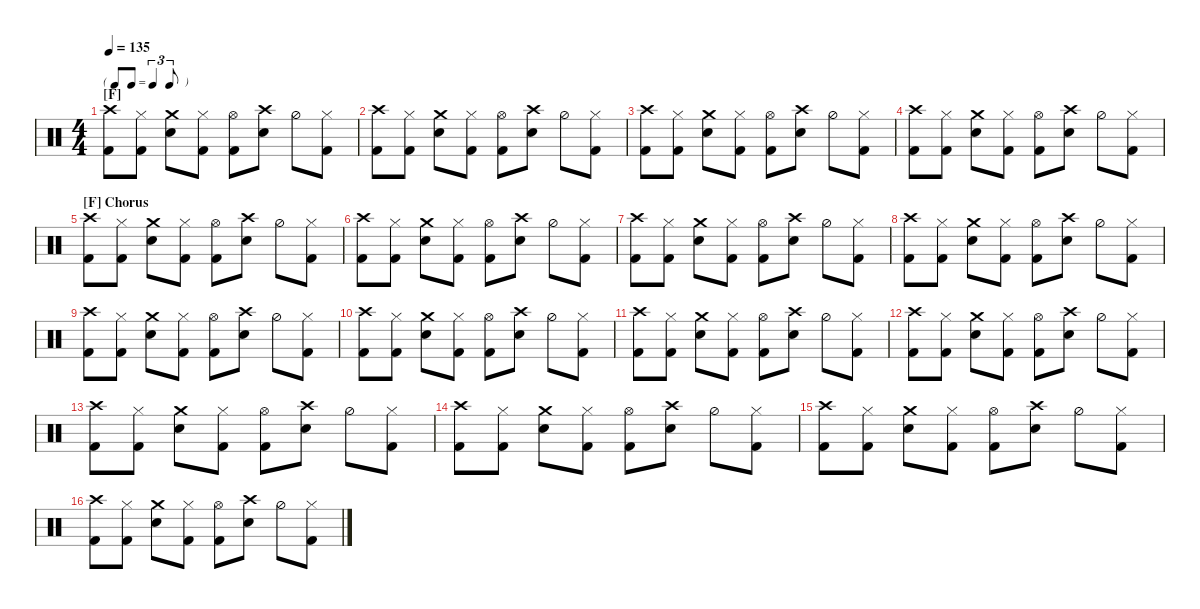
\defaultSystemsLayout 4
\hideDynamics
\bracketExtendMode nobrackets
\singleTrackTrackNamePolicy hidden
\multiTrackTrackNamePolicy hidden
\firstSystemTrackNameMode fullname
\firstSystemTrackNameOrientation horizontal
\otherSystemsTrackNameOrientation horizontal
\track ("Drum" "Drums") {instrument percussion}
\staff {score}
\articulation defaults
\ts (4 4)
\tf triplet8th
\section ("F" "")
\scale
0.25
\tempo 135
\accidentals auto
\clef neutral
\ottava regular
\simile none
\scale
0.25
\ks c
("Kick (hit) 2" "Crash high (hit)").8{dy f beam Down} ("Kick (hit) 2" "Hi-Hat (closed)").8{beam Down} ("Snare (hit) 2" "Crash medium (hit)").8{beam Down} ("Kick (hit) 2" "Hi-Hat (closed)").8{beam Down} ("Kick (hit) 2" "Hi-Hat (open)").8{beam Down} ("Snare (hit) 2" "Crash high (hit)").8{beam Down} "Hi-Hat (half)".8{beam Down} ("Kick (hit) 2" "Hi-Hat (closed)").8{beam Down} |
\scale
0.25
\scale
0.25 ("Kick (hit) 2" "Crash high (hit)").8{beam Down} ("Kick (hit) 2" "Hi-Hat (closed)").8{beam Down} ("Snare (hit) 2" "Crash medium (hit)").8{beam Down} ("Kick (hit) 2" "Hi-Hat (closed)").8{beam Down} ("Kick (hit) 2" "Hi-Hat (open)").8{beam Down} ("Snare (hit) 2" "Crash high (hit)").8{beam Down} "Hi-Hat (half)".8{beam Down} ("Kick (hit) 2" "Hi-Hat (closed)").8{beam Down} |
\scale
0.25
\scale
0.25 ("Kick (hit) 2" "Crash high (hit)").8{beam Down} ("Kick (hit) 2" "Hi-Hat (closed)").8{beam Down} ("Snare (hit) 2" "Crash medium (hit)").8{beam Down} ("Kick (hit) 2" "Hi-Hat (closed)").8{beam Down} ("Kick (hit) 2" "Hi-Hat (open)").8{beam Down} ("Snare (hit) 2" "Crash high (hit)").8{beam Down} "Hi-Hat (half)".8{beam Down} ("Kick (hit) 2" "Hi-Hat (closed)").8{beam Down} |
\scale
0.25
\scale
0.25 ("Kick (hit) 2" "Crash high (hit)").8{beam Down} ("Kick (hit) 2" "Hi-Hat (closed)").8{beam Down} ("Snare (hit) 2" "Crash medium (hit)").8{beam Down} ("Kick (hit) 2" "Hi-Hat (closed)").8{beam Down} ("Kick (hit) 2" "Hi-Hat (open)").8{beam Down} ("Snare (hit) 2" "Crash high (hit)").8{beam Down} "Hi-Hat (half)".8{beam Down} ("Kick (hit) 2" "Hi-Hat (closed)").8{beam Down} |
\section ("F" "Chorus")
\scale
0.238636
\scale
0.25 ("Kick (hit) 2" "Crash high (hit)").8{beam Down} ("Kick (hit) 2" "Hi-Hat (closed)").8{beam Down} ("Snare (hit) 2" "Crash medium (hit)").8{beam Down} ("Kick (hit) 2" "Hi-Hat (closed)").8{beam Down} ("Kick (hit) 2" "Hi-Hat (open)").8{beam Down} ("Snare (hit) 2" "Crash high (hit)").8{beam Down} "Hi-Hat (half)".8{beam Down} ("Kick (hit) 2" "Hi-Hat (closed)").8{beam Down} |
\scale
0.284091
\scale
0.25 ("Kick (hit) 2" "Crash high (hit)").8{beam Down} ("Kick (hit) 2" "Hi-Hat (closed)").8{beam Down} ("Snare (hit) 2" "Crash medium (hit)").8{beam Down} ("Kick (hit) 2" "Hi-Hat (closed)").8{beam Down} ("Kick (hit) 2" "Hi-Hat (open)").8{beam Down} ("Snare (hit) 2" "Crash high (hit)").8{beam Down} "Hi-Hat (half)".8{beam Down} ("Kick (hit) 2" "Hi-Hat (closed)").8{beam Down} |
\scale
0.238636
\scale
0.25 ("Kick (hit) 2" "Crash high (hit)").8{beam Down} ("Kick (hit) 2" "Hi-Hat (closed)").8{beam Down} ("Snare (hit) 2" "Crash medium (hit)").8{beam Down} ("Kick (hit) 2" "Hi-Hat (closed)").8{beam Down} ("Kick (hit) 2" "Hi-Hat (open)").8{beam Down} ("Snare (hit) 2" "Crash high (hit)").8{beam Down} "Hi-Hat (half)".8{beam Down} ("Kick (hit) 2" "Hi-Hat (closed)").8{beam Down} |
\scale
0.238636
\scale
0.25 ("Kick (hit) 2" "Crash high (hit)").8{beam Down} ("Kick (hit) 2" "Hi-Hat (closed)").8{beam Down} ("Snare (hit) 2" "Crash medium (hit)").8{beam Down} ("Kick (hit) 2" "Hi-Hat (closed)").8{beam Down} ("Kick (hit) 2" "Hi-Hat (open)").8{beam Down} ("Snare (hit) 2" "Crash high (hit)").8{beam Down} "Hi-Hat (half)".8{beam Down} ("Kick (hit) 2" "Hi-Hat (closed)").8{beam Down} |
\scale
0.238636
\scale
0.25 ("Kick (hit) 2" "Crash high (hit)").8{beam Down} ("Kick (hit) 2" "Hi-Hat (closed)").8{beam Down} ("Snare (hit) 2" "Crash medium (hit)").8{beam Down} ("Kick (hit) 2" "Hi-Hat (closed)").8{beam Down} ("Kick (hit) 2" "Hi-Hat (open)").8{beam Down} ("Snare (hit) 2" "Crash high (hit)").8{beam Down} "Hi-Hat (half)".8{beam Down} ("Kick (hit) 2" "Hi-Hat (closed)").8{beam Down} |
\scale
0.284091
\scale
0.25 ("Kick (hit) 2" "Crash high (hit)").8{beam Down} ("Kick (hit) 2" "Hi-Hat (closed)").8{beam Down} ("Snare (hit) 2" "Crash medium (hit)").8{beam Down} ("Kick (hit) 2" "Hi-Hat (closed)").8{beam Down} ("Kick (hit) 2" "Hi-Hat (open)").8{beam Down} ("Snare (hit) 2" "Crash high (hit)").8{beam Down} "Hi-Hat (half)".8{beam Down} ("Kick (hit) 2" "Hi-Hat (closed)").8{beam Down} |
\scale
0.238636
\scale
0.25 ("Kick (hit) 2" "Crash high (hit)").8{beam Down} ("Kick (hit) 2" "Hi-Hat (closed)").8{beam Down} ("Snare (hit) 2" "Crash medium (hit)").8{beam Down} ("Kick (hit) 2" "Hi-Hat (closed)").8{beam Down} ("Kick (hit) 2" "Hi-Hat (open)").8{beam Down} ("Snare (hit) 2" "Crash high (hit)").8{beam Down} "Hi-Hat (half)".8{beam Down} ("Kick (hit) 2" "Hi-Hat (closed)").8{beam Down} |
\scale
0.238636
\scale
0.25 ("Kick (hit) 2" "Crash high (hit)").8{beam Down} ("Kick (hit) 2" "Hi-Hat (closed)").8{beam Down} ("Snare (hit) 2" "Crash medium (hit)").8{beam Down} ("Kick (hit) 2" "Hi-Hat (closed)").8{beam Down} ("Kick (hit) 2" "Hi-Hat (open)").8{beam Down} ("Snare (hit) 2" "Crash high (hit)").8{beam Down} "Hi-Hat (half)".8{beam Down} ("Kick (hit) 2" "Hi-Hat (closed)").8{beam Down} |
\scale
0.21875
\scale
0.25 ("Kick (hit) 2" "Crash high (hit)").8{beam Down} ("Kick (hit) 2" "Hi-Hat (closed)").8{beam Down} ("Snare (hit) 2" "Crash medium (hit)").8{beam Down} ("Kick (hit) 2" "Hi-Hat (closed)").8{beam Down} ("Kick (hit) 2" "Hi-Hat (open)").8{beam Down} ("Snare (hit) 2" "Crash high (hit)").8{beam Down} "Hi-Hat (half)".8{beam Down} ("Kick (hit) 2" "Hi-Hat (closed)").8{beam Down} |
\scale
0.34375
\scale
0.25 ("Kick (hit) 2" "Crash high (hit)").8{beam Down} ("Kick (hit) 2" "Hi-Hat (closed)").8{beam Down} ("Snare (hit) 2" "Crash medium (hit)").8{beam Down} ("Kick (hit) 2" "Hi-Hat (closed)").8{beam Down} ("Kick (hit) 2" "Hi-Hat (open)").8{beam Down} ("Snare (hit) 2" "Crash high (hit)").8{beam Down} "Hi-Hat (half)".8{beam Down} ("Kick (hit) 2" "Hi-Hat (closed)").8{beam Down} |
\scale
0.21875
\scale
0.25 ("Kick (hit) 2" "Crash high (hit)").8{beam Down} ("Kick (hit) 2" "Hi-Hat (closed)").8{beam Down} ("Snare (hit) 2" "Crash medium (hit)").8{beam Down} ("Kick (hit) 2" "Hi-Hat (closed)").8{beam Down} ("Kick (hit) 2" "Hi-Hat (open)").8{beam Down} ("Snare (hit) 2" "Crash high (hit)").8{beam Down} "Hi-Hat (half)".8{beam Down} ("Kick (hit) 2" "Hi-Hat (closed)").8{beam Down} |
\scale
0.21875
\scale
0.25 ("Kick (hit) 2" "Crash high (hit)").8{beam Down} ("Kick (hit) 2" "Hi-Hat (closed)").8{beam Down} ("Snare (hit) 2" "Crash medium (hit)").8{beam Down} ("Kick (hit) 2" "Hi-Hat (closed)").8{beam Down} ("Kick (hit) 2" "Hi-Hat (open)").8{beam Down} ("Snare (hit) 2" "Crash high (hit)").8{beam Down} "Hi-Hat (half)".8{beam Down} ("Kick (hit) 2" "Hi-Hat (closed)").8{beam Down}
